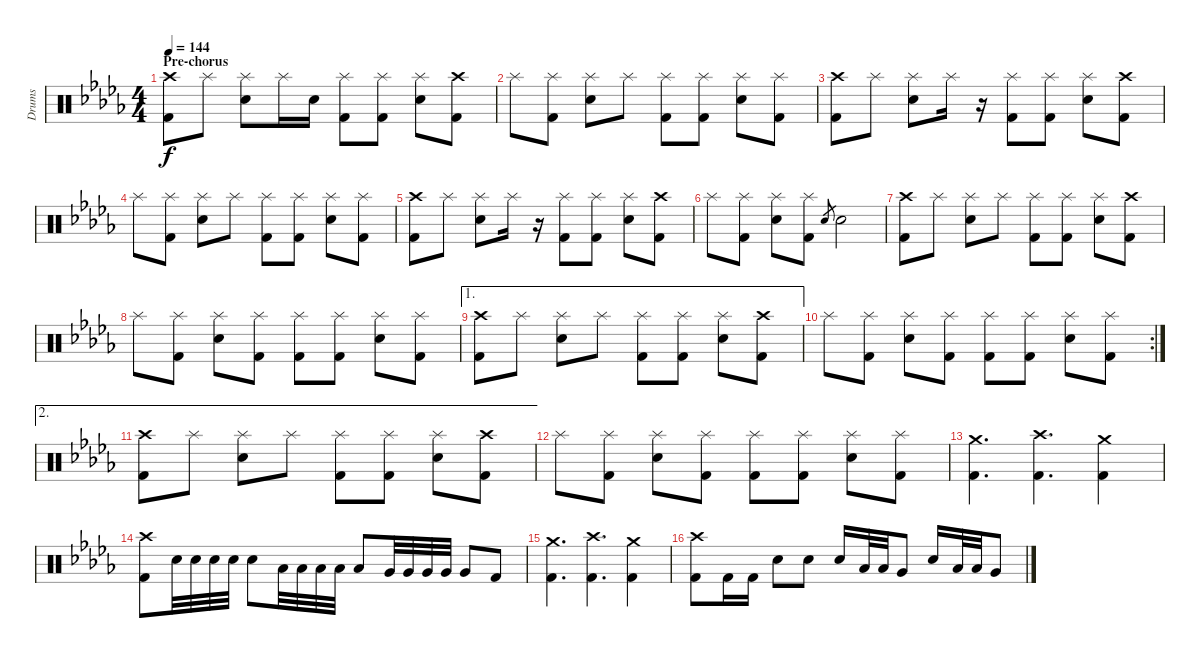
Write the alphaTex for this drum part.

\track ("Drums" "Drums") {instrument percussion}
\staff {score}
\articulation defaults
\ts (4 4)
\section ("" "Pre-chorus")
\tempo 144
\clef neutral
\ks db
("Crash high (hit)" "Kick (hit) 2").8{dy f} "Splash (hit)".8 ("Splash (hit)" "Snare (hit) 2").8 "Splash (hit)".16 "Snare (hit) 2".16 ("Splash (hit)" "Kick (hit) 2").8 ("Splash (hit)" "Kick (hit) 2").8 ("Splash (hit)" "Snare (hit) 2").8 ("Crash high (hit)" "Kick (hit) 2").8 |
"Splash (hit)".8 ("Splash (hit)" "Kick (hit) 2").8 ("Splash (hit)" "Snare (hit) 2").8 "Splash (hit)".8 ("Splash (hit)" "Kick (hit) 2").8 ("Splash (hit)" "Kick (hit) 2").8 ("Splash (hit)" "Snare (hit) 2").8 ("Splash (hit)" "Kick (hit) 2").8 |
("Crash high (hit)" "Kick (hit) 2").8 "Splash (hit)".8 ("Splash (hit)" "Snare (hit) 2").8 "Splash (hit)".16 r.16 ("Splash (hit)" "Kick (hit) 2").8 ("Splash (hit)" "Kick (hit) 2").8 ("Splash (hit)" "Snare (hit) 2").8 ("Crash high (hit)" "Kick (hit) 2").8 |
"Splash (hit)".8 ("Splash (hit)" "Kick (hit) 2").8 ("Splash (hit)" "Snare (hit) 2").8 "Splash (hit)".8 ("Splash (hit)" "Kick (hit) 2").8 ("Splash (hit)" "Kick (hit) 2").8 ("Splash (hit)" "Snare (hit) 2").8 ("Splash (hit)" "Kick (hit) 2").8 |
("Crash high (hit)" "Kick (hit) 2").8 "Splash (hit)".8 ("Splash (hit)" "Snare (hit) 2").8 "Splash (hit)".16 r.16 ("Splash (hit)" "Kick (hit) 2").8 ("Splash (hit)" "Kick (hit) 2").8 ("Splash (hit)" "Snare (hit) 2").8 ("Crash high (hit)" "Kick (hit) 2").8 |
"Splash (hit)".8 ("Splash (hit)" "Kick (hit) 2").8 ("Splash (hit)" "Snare (hit) 2").8 ("Splash (hit)" "Kick (hit) 2").8 "Snare (hit) 2".8{gr} "Snare (hit) 2".2 |
("Crash high (hit)" "Kick (hit) 2").8 "Splash (hit)".8 ("Splash (hit)" "Snare (hit) 2").8 "Splash (hit)".8 ("Splash (hit)" "Kick (hit) 2").8 ("Splash (hit)" "Kick (hit) 2").8 ("Splash (hit)" "Snare (hit) 2").8 ("Crash high (hit)" "Kick (hit) 2").8 |
"Splash (hit)".8 ("Splash (hit)" "Kick (hit) 2").8 ("Splash (hit)" "Snare (hit) 2").8 ("Splash (hit)" "Kick (hit) 2").8 ("Splash (hit)" "Kick (hit) 2").8 ("Splash (hit)" "Kick (hit) 2").8 ("Splash (hit)" "Snare (hit) 2").8 ("Splash (hit)" "Kick (hit) 2").8 |
\ae 1
("Crash high (hit)" "Kick (hit) 2").8 "Splash (hit)".8 ("Splash (hit)" "Snare (hit) 2").8 "Splash (hit)".8 ("Splash (hit)" "Kick (hit) 2").8 ("Splash (hit)" "Kick (hit) 2").8 ("Splash (hit)" "Snare (hit) 2").8 ("Crash high (hit)" "Kick (hit) 2").8 |
\rc 2 "Splash (hit)".8
("Splash (hit)" "Kick (hit) 2").8 ("Splash (hit)" "Snare (hit) 2").8 ("Splash (hit)" "Kick (hit) 2").8 ("Splash (hit)" "Kick (hit) 2").8 ("Splash (hit)" "Kick (hit) 2").8 ("Splash (hit)" "Snare (hit) 2").8 ("Splash (hit)" "Kick (hit) 2").8 |
\ae 2
("Crash high (hit)" "Kick (hit) 2").8 "Splash (hit)".8 ("Splash (hit)" "Snare (hit) 2").8 "Splash (hit)".8 ("Splash (hit)" "Kick (hit) 2").8 ("Splash (hit)" "Kick (hit) 2").8 ("Splash (hit)" "Snare (hit) 2").8 ("Crash high (hit)" "Kick (hit) 2").8 |
"Splash (hit)".8 ("Splash (hit)" "Kick (hit) 2").8 ("Splash (hit)" "Snare (hit) 2").8 ("Splash (hit)" "Kick (hit) 2").8 ("Splash (hit)" "Kick (hit) 2").8 ("Splash (hit)" "Kick (hit) 2").8 ("Splash (hit)" "Snare (hit) 2").8 ("Splash (hit)" "Kick (hit) 2").8 |
("Crash medium (hit)" "Kick (hit) 2").4{d} ("Crash high (hit)" "Kick (hit) 2").4{d} ("Crash medium (hit)" "Kick (hit) 2").4 |
("Crash high (hit)" "Kick (hit) 2").8 "Snare (hit) 2".32 "Snare (hit) 2".32 "Snare (hit) 2".32 "Snare (hit) 2".32 "Snare (hit) 2".8 "Low Tom (hit)".32 "Low Tom (hit)".32 "Low Tom (hit)".32 "Low Tom (hit)".32 "Low Tom (hit)".8 "Very Low Tom (hit)".32 "Very Low Tom (hit)".32 "Very Low Tom (hit)".32 "Very Low Tom (hit)".32 "Very Low Tom (hit)".8 "Kick (hit) 2".8 |
("Crash medium (hit)" "Kick (hit) 2").4{d} ("Crash high (hit)" "Kick (hit) 2").4{d} ("Crash medium (hit)" "Kick (hit) 2").4 |
("Crash high (hit)" "Kick (hit) 2").8 "Kick (hit) 2".16 "Kick (hit) 2".16 "Snare (hit) 2".8 "Snare (hit) 2".8 "Snare (hit) 2".16 "Low Tom (hit)".32 "Low Tom (hit)".32 "Very Low Tom (hit)".8 "Snare (hit) 2".16 "Low Tom (hit)".32 "Low Tom (hit)".32 "Very Low Tom (hit)".8
